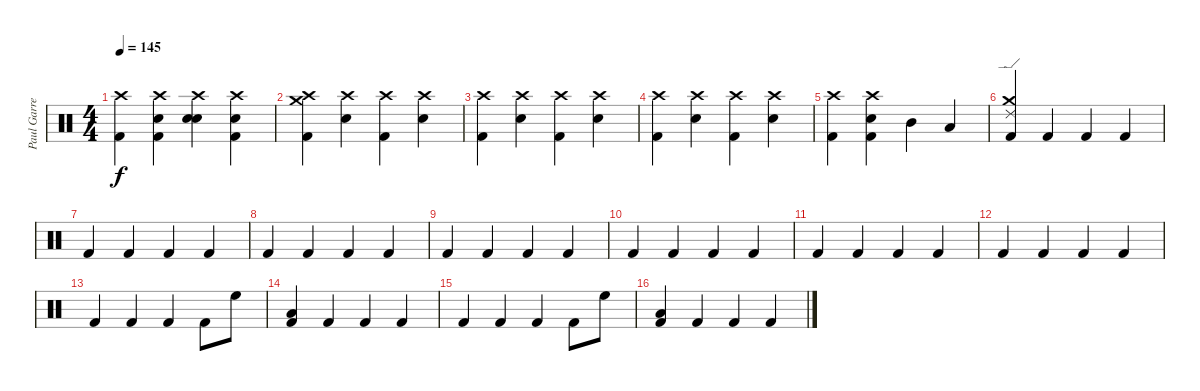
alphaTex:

\track ("Paul Garred (Percussion)" "Paul Garre") {instrument percussion}
\staff {score}
\articulation defaults
\ts (4 4)
\tempo 145
\clef neutral
\ks c
("Crash high (hit)" "Kick (hit) 2").4{dy f} ("Crash high (hit)" "Snare (hit) 2" "Kick (hit) 2").4 ("Crash high (hit)" "Snare (hit) 2" "Snare (hit) 2").4 ("Crash high (hit)" "Snare (hit) 2" "Kick (hit) 2").4 |
("Crash medium (hit)" "Crash high (hit)" "Kick (hit) 2").4 ("Crash high (hit)" "Snare (hit) 2").4 ("Crash high (hit)" "Kick (hit) 2").4 ("Crash high (hit)" "Snare (hit) 2").4 |
("Crash high (hit)" "Kick (hit) 2").4 ("Crash high (hit)" "Snare (hit) 2").4 ("Crash high (hit)" "Kick (hit) 2").4 ("Crash high (hit)" "Snare (hit) 2").4 |
("Crash high (hit)" "Kick (hit) 2").4 ("Crash high (hit)" "Snare (hit) 2").4 ("Crash high (hit)" "Kick (hit) 2").4 ("Crash high (hit)" "Snare (hit) 2").4 |
("Crash high (hit)" "Kick (hit) 2").4 ("Crash high (hit)" "Snare (hit) 2" "Kick (hit) 2").4 "Mid Tom (hit)".4 "Low Tom (hit)".4 |
("Crash medium (hit)" "Ride (edge) 2" "Kick (hit) 2").4 "Kick (hit) 2".4 "Kick (hit) 2".4 "Kick (hit) 2".4 |
"Kick (hit) 2".4 "Kick (hit) 2".4 "Kick (hit) 2".4 "Kick (hit) 2".4 |
"Kick (hit) 2".4 "Kick (hit) 2".4 "Kick (hit) 2".4 "Kick (hit) 2".4 |
"Kick (hit) 2".4 "Kick (hit) 2".4 "Kick (hit) 2".4 "Kick (hit) 2".4 |
"Kick (hit) 2".4 "Kick (hit) 2".4 "Kick (hit) 2".4 "Kick (hit) 2".4 |
"Kick (hit) 2".4 "Kick (hit) 2".4 "Kick (hit) 2".4 "Kick (hit) 2".4 |
"Kick (hit) 2".4 "Kick (hit) 2".4 "Kick (hit) 2".4 "Kick (hit) 2".4 |
"Kick (hit) 2".4 "Kick (hit) 2".4 "Kick (hit) 2".4 "Kick (hit) 2".8 "High Floor Tom (hit)".8 |
("Low Tom (hit)" "Kick (hit) 2").4 "Kick (hit) 2".4 "Kick (hit) 2".4 "Kick (hit) 2".4 |
"Kick (hit) 2".4 "Kick (hit) 2".4 "Kick (hit) 2".4 "Kick (hit) 2".8 "High Floor Tom (hit)".8 |
("Low Tom (hit)" "Kick (hit) 2").4 "Kick (hit) 2".4 "Kick (hit) 2".4 "Kick (hit) 2".4
